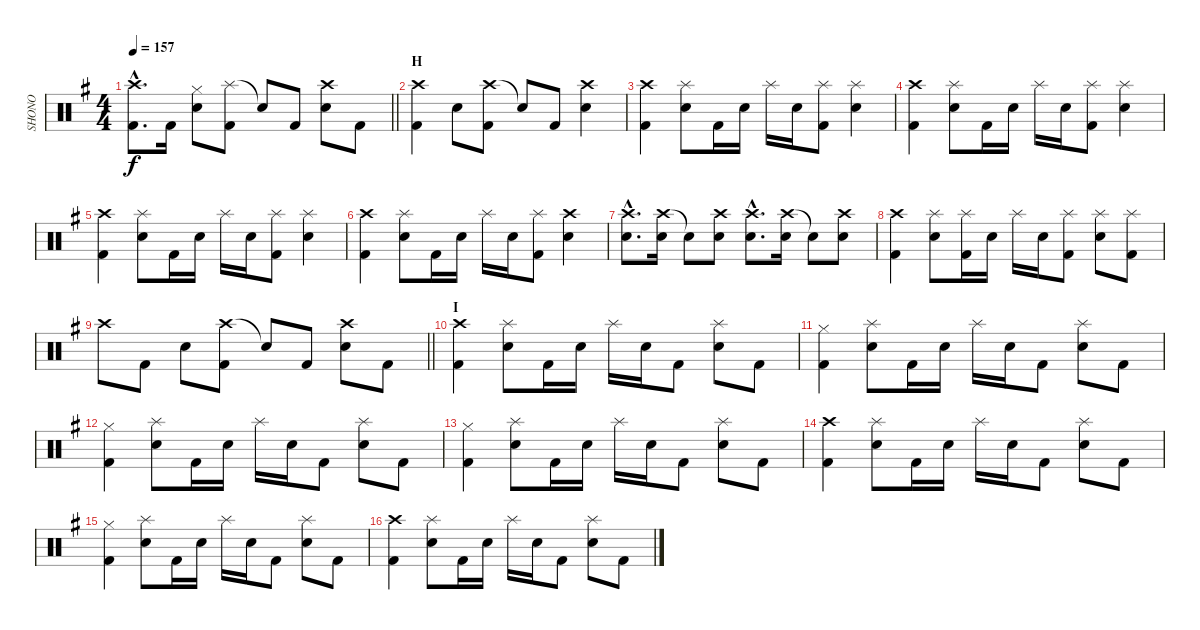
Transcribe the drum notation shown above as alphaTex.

\track ("SHONO" "SHONO") {instrument percussion}
\staff {score}
\articulation defaults
\ts (4 4)
\tempo 157
\clef neutral
\barLineRight lightlight
\ks g
("Crash high (hit)"{hac} "Kick (hit) 2"{hac}).8{d dy f} "Kick (hit) 2".16 ("Hi-Hat (closed)" "Snare (hit) 2").8 ("Splash (hit)" "Kick (hit) 2").8 "Snare (hit)"{t}.8 "Kick (hit) 2".8 ("Crash high (hit)" "Snare (hit) 2").8 "Kick (hit) 2".8 |
\section ("" "H")
("Crash high (hit)" "Kick (hit) 2").4 "Snare (hit) 2".8 ("Crash high (hit)" "Kick (hit) 2").8 "Snare (hit)"{t}.8 "Kick (hit) 2".8 ("Crash high (hit)" "Snare (hit) 2").4 |
("Crash high (hit)" "Kick (hit) 2").4 ("Splash (hit)" "Snare (hit) 2").8 "Kick (hit) 2".16 "Snare (hit) 2".16 "Splash (hit)".16 "Snare (hit) 2".16 ("Splash (hit)" "Kick (hit) 2").8 ("Splash (hit)" "Snare (hit) 2").4 |
("Crash high (hit)" "Kick (hit) 2").4 ("Splash (hit)" "Snare (hit) 2").8 "Kick (hit) 2".16 "Snare (hit) 2".16 "Splash (hit)".16 "Snare (hit) 2".16 ("Splash (hit)" "Kick (hit) 2").8 ("Splash (hit)" "Snare (hit) 2").4 |
("Crash high (hit)" "Kick (hit) 2").4 ("Splash (hit)" "Snare (hit) 2").8 "Kick (hit) 2".16 "Snare (hit) 2".16 "Splash (hit)".16 "Snare (hit) 2".16 ("Splash (hit)" "Kick (hit) 2").8 ("Splash (hit)" "Snare (hit) 2").4 |
("Crash high (hit)" "Kick (hit) 2").4 ("Splash (hit)" "Snare (hit) 2").8 "Kick (hit) 2".16 "Snare (hit) 2".16 "Splash (hit)".16 "Snare (hit) 2".16 ("Splash (hit)" "Kick (hit) 2").8 ("Crash high (hit)" "Snare (hit) 2").4 |
("Crash high (hit)"{hac} "Snare (hit) 2"{hac}).8{d} ("Crash high (hit)" "Snare (hit) 2").16 "Snare (hit)"{t}.8 ("Crash high (hit)" "Snare (hit) 2").8 ("Crash high (hit)"{hac} "Snare (hit) 2"{hac}).8{d} ("Crash high (hit)" "Snare (hit) 2").16 "Snare (hit)"{t}.8 ("Crash high (hit)" "Snare (hit) 2").8 |
("Crash high (hit)" "Kick (hit) 2").4 ("Splash (hit)" "Snare (hit) 2").8 ("Splash (hit)" "Kick (hit) 2").16 "Snare (hit) 2".16 "Splash (hit)".16 "Snare (hit) 2".16 ("Splash (hit)" "Kick (hit) 2").8 ("Splash (hit)" "Snare (hit) 2").8 ("Splash (hit)" "Kick (hit) 2").8 |
\barLineRight lightlight "Crash high (hit)".8 "Kick (hit) 2".8 "Snare (hit) 2".8
("Crash high (hit)" "Kick (hit) 2").8 "Snare (hit)"{t}.8 "Kick (hit) 2".8 ("Crash high (hit)" "Snare (hit) 2").8 "Kick (hit) 2".8 |
\section ("" "I")
("Crash high (hit)" "Kick (hit) 2").4 ("Splash (hit)" "Snare (hit) 2").8 "Kick (hit) 2".16 "Snare (hit) 2".16 "Splash (hit)".16 "Snare (hit) 2".16 "Kick (hit) 2".8 ("Splash (hit)" "Snare (hit) 2").8 "Kick (hit) 2".8 |
("Hi-Hat (closed)" "Kick (hit) 2").4 ("Splash (hit)" "Snare (hit) 2").8 "Kick (hit) 2".16 "Snare (hit) 2".16 "Splash (hit)".16 "Snare (hit) 2".16 "Kick (hit) 2".8 ("Splash (hit)" "Snare (hit) 2").8 "Kick (hit) 2".8 |
("Hi-Hat (closed)" "Kick (hit) 2").4 ("Splash (hit)" "Snare (hit) 2").8 "Kick (hit) 2".16 "Snare (hit) 2".16 "Splash (hit)".16 "Snare (hit) 2".16 "Kick (hit) 2".8 ("Splash (hit)" "Snare (hit) 2").8 "Kick (hit) 2".8 |
("Hi-Hat (closed)" "Kick (hit) 2").4 ("Splash (hit)" "Snare (hit) 2").8 "Kick (hit) 2".16 "Snare (hit) 2".16 "Splash (hit)".16 "Snare (hit) 2".16 "Kick (hit) 2".8 ("Splash (hit)" "Snare (hit) 2").8 "Kick (hit) 2".8 |
("Crash high (hit)" "Kick (hit) 2").4 ("Splash (hit)" "Snare (hit) 2").8 "Kick (hit) 2".16 "Snare (hit) 2".16 "Splash (hit)".16 "Snare (hit) 2".16 "Kick (hit) 2".8 ("Splash (hit)" "Snare (hit) 2").8 "Kick (hit) 2".8 |
("Hi-Hat (closed)" "Kick (hit) 2").4 ("Splash (hit)" "Snare (hit) 2").8 "Kick (hit) 2".16 "Snare (hit) 2".16 "Splash (hit)".16 "Snare (hit) 2".16 "Kick (hit) 2".8 ("Splash (hit)" "Snare (hit) 2").8 "Kick (hit) 2".8 |
("Crash high (hit)" "Kick (hit) 2").4 ("Splash (hit)" "Snare (hit) 2").8 "Kick (hit) 2".16 "Snare (hit) 2".16 "Splash (hit)".16 "Snare (hit) 2".16 "Kick (hit) 2".8 ("Splash (hit)" "Snare (hit) 2").8 "Kick (hit) 2".8
